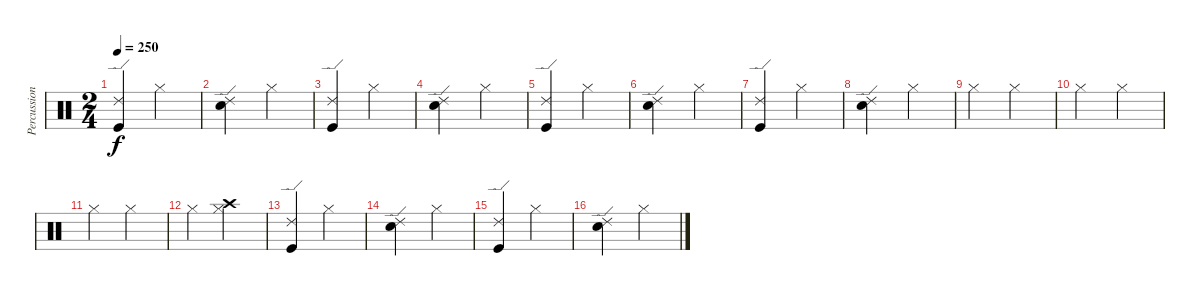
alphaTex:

\track ("Percussion" "Percussion") {instrument percussion}
\staff {score}
\articulation defaults
\ts (2 4)
\tempo 250
\clef neutral
\ks c
("Ride (edge) 2" "Kick (hit)").4{dy f} "Hi-Hat (closed)".4 |
("Ride (edge) 2" "Snare (hit) 2").4 "Hi-Hat (closed)".4 |
("Ride (edge) 2" "Kick (hit)").4 "Hi-Hat (closed)".4 |
("Ride (edge) 2" "Snare (hit) 2").4 "Hi-Hat (closed)".4 |
("Ride (edge) 2" "Kick (hit)").4 "Hi-Hat (closed)".4 |
("Ride (edge) 2" "Snare (hit) 2").4 "Hi-Hat (closed)".4 |
("Ride (edge) 2" "Kick (hit)").4 "Hi-Hat (closed)".4 |
("Ride (edge) 2" "Snare (hit) 2").4 "Hi-Hat (closed)".4 |
"Hi-Hat (closed)".4 "Hi-Hat (closed)".4 |
"Hi-Hat (closed)".4 "Hi-Hat (closed)".4 |
"Hi-Hat (closed)".4 "Hi-Hat (closed)".4 |
"Hi-Hat (closed)".4 ("Crash high (hit)" "Hi-Hat (closed)").4 |
("Ride (edge) 2" "Kick (hit)").4 "Hi-Hat (closed)".4 |
("Ride (edge) 2" "Snare (hit) 2").4 "Hi-Hat (closed)".4 |
("Ride (edge) 2" "Kick (hit)").4 "Hi-Hat (closed)".4 |
("Ride (edge) 2" "Snare (hit) 2").4 "Hi-Hat (closed)".4
